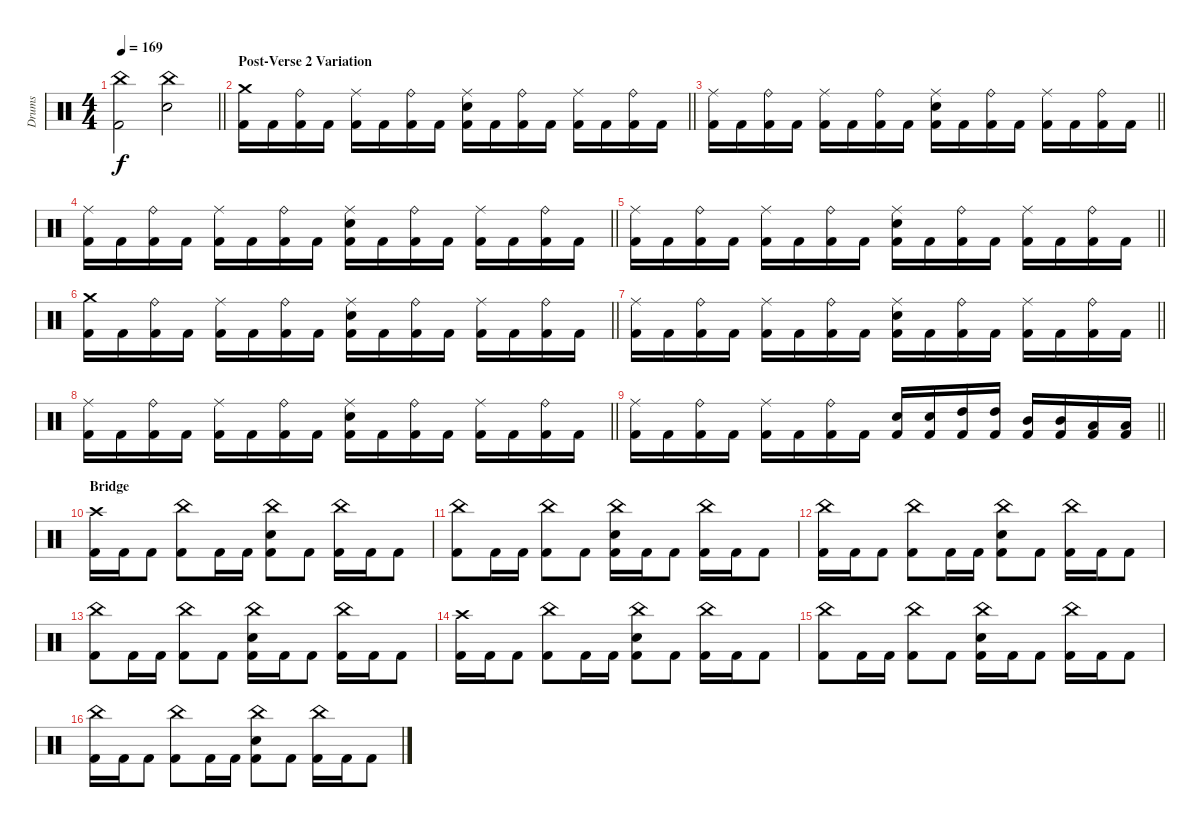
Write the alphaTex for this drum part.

\track ("Drums" "Drums") {instrument percussion}
\staff {score}
\articulation defaults
\ts (4 4)
\tempo 169
\clef neutral
\barLineRight lightlight
\ks c
("China (hit)" "Kick (hit) 2").2{dy f} ("China (hit)" "Snare (hit) 2").2 |
\section ("" "Post-Verse 2 Variation")
\barLineRight lightlight
("Crash medium (hit)" "Kick (hit) 2").16 "Kick (hit) 2".16 ("Ride (bell)" "Kick (hit) 2").16 "Kick (hit) 2".16 ("Ride (middle)" "Kick (hit) 2").16 "Kick (hit) 2".16 ("Ride (bell)" "Kick (hit) 2").16 "Kick (hit) 2".16 ("Ride (middle)" "Snare (hit) 2" "Kick (hit) 2").16 "Kick (hit) 2".16 ("Ride (bell)" "Kick (hit) 2").16 "Kick (hit) 2".16 ("Ride (middle)" "Kick (hit) 2").16 "Kick (hit) 2".16 ("Ride (bell)" "Kick (hit) 2").16 "Kick (hit) 2".16 |
\barLineRight lightlight
("Ride (middle)" "Kick (hit) 2").16 "Kick (hit) 2".16 ("Ride (bell)" "Kick (hit) 2").16 "Kick (hit) 2".16 ("Ride (middle)" "Kick (hit) 2").16 "Kick (hit) 2".16 ("Ride (bell)" "Kick (hit) 2").16 "Kick (hit) 2".16 ("Ride (middle)" "Snare (hit) 2" "Kick (hit) 2").16 "Kick (hit) 2".16 ("Ride (bell)" "Kick (hit) 2").16 "Kick (hit) 2".16 ("Ride (middle)" "Kick (hit) 2").16 "Kick (hit) 2".16 ("Ride (bell)" "Kick (hit) 2").16 "Kick (hit) 2".16 |
\barLineRight lightlight
("Ride (middle)" "Kick (hit) 2").16 "Kick (hit) 2".16 ("Ride (bell)" "Kick (hit) 2").16 "Kick (hit) 2".16 ("Ride (middle)" "Kick (hit) 2").16 "Kick (hit) 2".16 ("Ride (bell)" "Kick (hit) 2").16 "Kick (hit) 2".16 ("Ride (middle)" "Snare (hit) 2" "Kick (hit) 2").16 "Kick (hit) 2".16 ("Ride (bell)" "Kick (hit) 2").16 "Kick (hit) 2".16 ("Ride (middle)" "Kick (hit) 2").16 "Kick (hit) 2".16 ("Ride (bell)" "Kick (hit) 2").16 "Kick (hit) 2".16 |
\barLineRight lightlight
("Ride (middle)" "Kick (hit) 2").16 "Kick (hit) 2".16 ("Ride (bell)" "Kick (hit) 2").16 "Kick (hit) 2".16 ("Ride (middle)" "Kick (hit) 2").16 "Kick (hit) 2".16 ("Ride (bell)" "Kick (hit) 2").16 "Kick (hit) 2".16 ("Ride (middle)" "Snare (hit) 2" "Kick (hit) 2").16 "Kick (hit) 2".16 ("Ride (bell)" "Kick (hit) 2").16 "Kick (hit) 2".16 ("Ride (middle)" "Kick (hit) 2").16 "Kick (hit) 2".16 ("Ride (bell)" "Kick (hit) 2").16 "Kick (hit) 2".16 |
\barLineRight lightlight
("Crash medium (hit)" "Kick (hit) 2").16 "Kick (hit) 2".16 ("Ride (bell)" "Kick (hit) 2").16 "Kick (hit) 2".16 ("Ride (middle)" "Kick (hit) 2").16 "Kick (hit) 2".16 ("Ride (bell)" "Kick (hit) 2").16 "Kick (hit) 2".16 ("Ride (middle)" "Snare (hit) 2" "Kick (hit) 2").16 "Kick (hit) 2".16 ("Ride (bell)" "Kick (hit) 2").16 "Kick (hit) 2".16 ("Ride (middle)" "Kick (hit) 2").16 "Kick (hit) 2".16 ("Ride (bell)" "Kick (hit) 2").16 "Kick (hit) 2".16 |
\barLineRight lightlight
("Ride (middle)" "Kick (hit) 2").16 "Kick (hit) 2".16 ("Ride (bell)" "Kick (hit) 2").16 "Kick (hit) 2".16 ("Ride (middle)" "Kick (hit) 2").16 "Kick (hit) 2".16 ("Ride (bell)" "Kick (hit) 2").16 "Kick (hit) 2".16 ("Ride (middle)" "Snare (hit) 2" "Kick (hit) 2").16 "Kick (hit) 2".16 ("Ride (bell)" "Kick (hit) 2").16 "Kick (hit) 2".16 ("Ride (middle)" "Kick (hit) 2").16 "Kick (hit) 2".16 ("Ride (bell)" "Kick (hit) 2").16 "Kick (hit) 2".16 |
\barLineRight lightlight
("Ride (middle)" "Kick (hit) 2").16 "Kick (hit) 2".16 ("Ride (bell)" "Kick (hit) 2").16 "Kick (hit) 2".16 ("Ride (middle)" "Kick (hit) 2").16 "Kick (hit) 2".16 ("Ride (bell)" "Kick (hit) 2").16 "Kick (hit) 2".16 ("Ride (middle)" "Snare (hit) 2" "Kick (hit) 2").16 "Kick (hit) 2".16 ("Ride (bell)" "Kick (hit) 2").16 "Kick (hit) 2".16 ("Ride (middle)" "Kick (hit) 2").16 "Kick (hit) 2".16 ("Ride (bell)" "Kick (hit) 2").16 "Kick (hit) 2".16 |
\barLineRight lightlight
("Ride (middle)" "Kick (hit) 2").16 "Kick (hit) 2".16 ("Ride (bell)" "Kick (hit) 2").16 "Kick (hit) 2".16 ("Ride (middle)" "Kick (hit) 2").16 "Kick (hit) 2".16 ("Ride (bell)" "Kick (hit) 2").16 "Kick (hit) 2".16 ("Snare (hit) 2" "Kick (hit) 2").16 ("Snare (hit) 2" "Kick (hit) 2").16 ("High Tom (hit)" "Kick (hit) 2").16 ("High Tom (hit)" "Kick (hit) 2").16 ("Mid Tom (hit)" "Kick (hit) 2").16 ("Mid Tom (hit)" "Kick (hit) 2").16 ("Low Tom (hit)" "Kick (hit) 2").16 ("Low Tom (hit)" "Kick (hit) 2").16 |
\section ("" "Bridge")
("Crash high (hit)" "Kick (hit) 2").16 "Kick (hit) 2".16 "Kick (hit) 2".8 ("China (hit)" "Kick (hit) 2").8 "Kick (hit) 2".16 "Kick (hit) 2".16 ("China (hit)" "Snare (hit) 2" "Kick (hit) 2").8 "Kick (hit) 2".8 ("China (hit)" "Kick (hit) 2").16 "Kick (hit) 2".16 "Kick (hit) 2".8 |
("China (hit)" "Kick (hit) 2").8 "Kick (hit) 2".16 "Kick (hit) 2".16 ("China (hit)" "Kick (hit) 2").8 "Kick (hit) 2".8 ("China (hit)" "Snare (hit) 2" "Kick (hit) 2").16 "Kick (hit) 2".16 "Kick (hit) 2".8 ("China (hit)" "Kick (hit) 2").16 "Kick (hit) 2".16 "Kick (hit) 2".8 |
("China (hit)" "Kick (hit) 2").16 "Kick (hit) 2".16 "Kick (hit) 2".8 ("China (hit)" "Kick (hit) 2").8 "Kick (hit) 2".16 "Kick (hit) 2".16 ("China (hit)" "Snare (hit) 2" "Kick (hit) 2").8 "Kick (hit) 2".8 ("China (hit)" "Kick (hit) 2").16 "Kick (hit) 2".16 "Kick (hit) 2".8 |
("China (hit)" "Kick (hit) 2").8 "Kick (hit) 2".16 "Kick (hit) 2".16 ("China (hit)" "Kick (hit) 2").8 "Kick (hit) 2".8 ("China (hit)" "Snare (hit) 2" "Kick (hit) 2").16 "Kick (hit) 2".16 "Kick (hit) 2".8 ("China (hit)" "Kick (hit) 2").16 "Kick (hit) 2".16 "Kick (hit) 2".8 |
("Crash high (hit)" "Kick (hit) 2").16 "Kick (hit) 2".16 "Kick (hit) 2".8 ("China (hit)" "Kick (hit) 2").8 "Kick (hit) 2".16 "Kick (hit) 2".16 ("China (hit)" "Snare (hit) 2" "Kick (hit) 2").8 "Kick (hit) 2".8 ("China (hit)" "Kick (hit) 2").16 "Kick (hit) 2".16 "Kick (hit) 2".8 |
("China (hit)" "Kick (hit) 2").8 "Kick (hit) 2".16 "Kick (hit) 2".16 ("China (hit)" "Kick (hit) 2").8 "Kick (hit) 2".8 ("China (hit)" "Snare (hit) 2" "Kick (hit) 2").16 "Kick (hit) 2".16 "Kick (hit) 2".8 ("China (hit)" "Kick (hit) 2").16 "Kick (hit) 2".16 "Kick (hit) 2".8 |
("China (hit)" "Kick (hit) 2").16 "Kick (hit) 2".16 "Kick (hit) 2".8 ("China (hit)" "Kick (hit) 2").8 "Kick (hit) 2".16 "Kick (hit) 2".16 ("China (hit)" "Snare (hit) 2" "Kick (hit) 2").8 "Kick (hit) 2".8 ("China (hit)" "Kick (hit) 2").16 "Kick (hit) 2".16 "Kick (hit) 2".8
